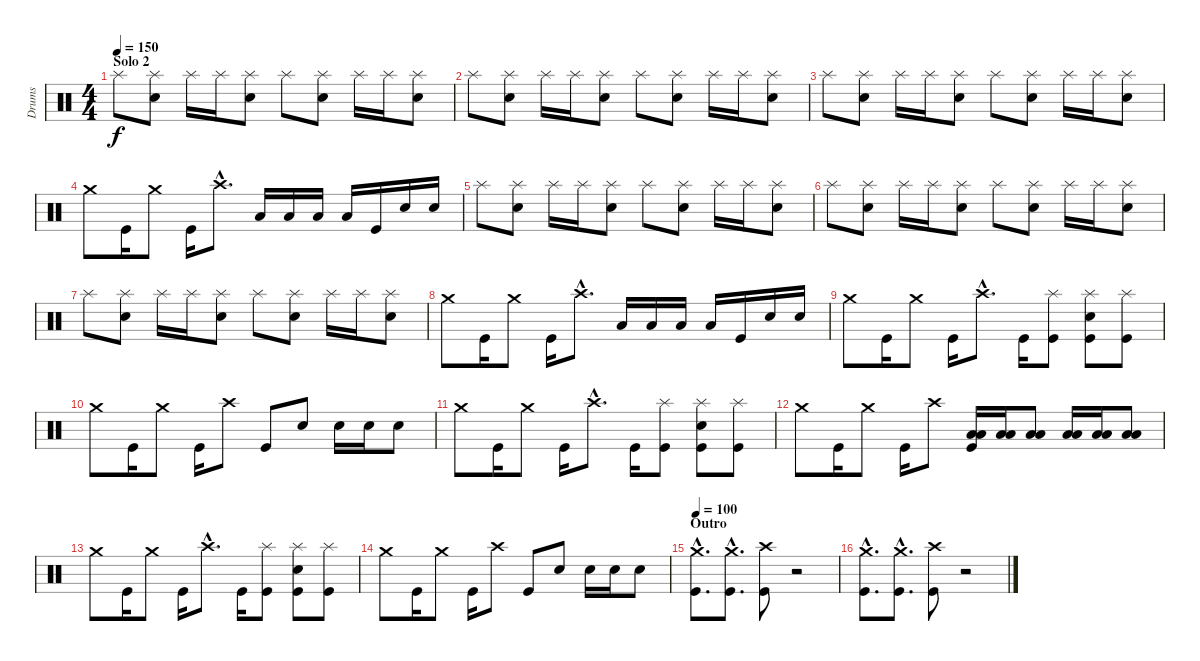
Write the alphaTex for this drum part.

\track ("Drums" "Drums") {instrument percussion}
\staff {score}
\articulation defaults
\ts (4 4)
\section ("" "Solo 2")
\tempo 150
\clef neutral
\ks c "Splash (hit)".8{dy f}
("Splash (hit)" "Snare (hit) 2").8 "Splash (hit)".16 "Splash (hit)".16 ("Splash (hit)" "Snare (hit) 2").8 "Splash (hit)".8 ("Splash (hit)" "Snare (hit) 2").8 "Splash (hit)".16 "Splash (hit)".16 ("Splash (hit)" "Snare (hit) 2").8 |
"Splash (hit)".8 ("Splash (hit)" "Snare (hit) 2").8 "Splash (hit)".16 "Splash (hit)".16 ("Splash (hit)" "Snare (hit) 2").8 "Splash (hit)".8 ("Splash (hit)" "Snare (hit) 2").8 "Splash (hit)".16 "Splash (hit)".16 ("Splash (hit)" "Snare (hit) 2").8 |
"Splash (hit)".8 ("Splash (hit)" "Snare (hit) 2").8 "Splash (hit)".16 "Splash (hit)".16 ("Splash (hit)" "Snare (hit) 2").8 "Splash (hit)".8 ("Splash (hit)" "Snare (hit) 2").8 "Splash (hit)".16 "Splash (hit)".16 ("Splash (hit)" "Snare (hit) 2").8 |
"Crash medium (hit)".8 "Kick (hit)".16 "Crash medium (hit)".8 "Kick (hit)".16 "Crash high (hit)"{hac}.8{d} "Low Tom (hit)".16 "Low Tom (hit)".16 "Low Tom (hit)".16 "Low Tom (hit)".16 "Kick (hit)".16 "Snare (hit) 2".16 "Snare (hit) 2".16 |
"Splash (hit)".8 ("Splash (hit)" "Snare (hit) 2").8 "Splash (hit)".16 "Splash (hit)".16 ("Splash (hit)" "Snare (hit) 2").8 "Splash (hit)".8 ("Splash (hit)" "Snare (hit) 2").8 "Splash (hit)".16 "Splash (hit)".16 ("Splash (hit)" "Snare (hit) 2").8 |
"Splash (hit)".8 ("Splash (hit)" "Snare (hit) 2").8 "Splash (hit)".16 "Splash (hit)".16 ("Splash (hit)" "Snare (hit) 2").8 "Splash (hit)".8 ("Splash (hit)" "Snare (hit) 2").8 "Splash (hit)".16 "Splash (hit)".16 ("Splash (hit)" "Snare (hit) 2").8 |
"Splash (hit)".8 ("Splash (hit)" "Snare (hit) 2").8 "Splash (hit)".16 "Splash (hit)".16 ("Splash (hit)" "Snare (hit) 2").8 "Splash (hit)".8 ("Splash (hit)" "Snare (hit) 2").8 "Splash (hit)".16 "Splash (hit)".16 ("Splash (hit)" "Snare (hit) 2").8 |
"Crash medium (hit)".8 "Kick (hit)".16 "Crash medium (hit)".8 "Kick (hit)".16 "Crash high (hit)"{hac}.8{d} "Low Tom (hit)".16 "Low Tom (hit)".16 "Low Tom (hit)".16 "Low Tom (hit)".16 "Kick (hit)".16 "Snare (hit) 2".16 "Snare (hit) 2".16 |
"Crash medium (hit)".8 "Kick (hit)".16 "Crash medium (hit)".8 "Kick (hit)".16 "Crash high (hit)"{hac}.8{d} "Kick (hit)".16 ("Splash (hit)" "Kick (hit)").8 ("Splash (hit)" "Snare (hit) 2" "Kick (hit)").8 ("Splash (hit)" "Kick (hit)").8 |
"Crash medium (hit)".8 "Kick (hit)".16 "Crash medium (hit)".8 "Kick (hit)".16 "Crash high (hit)".8 "Kick (hit)".8 "Snare (hit) 2".8 "Snare (hit) 2".16 "Snare (hit) 2".16 "Snare (hit) 2".8 |
"Crash medium (hit)".8 "Kick (hit)".16 "Crash medium (hit)".8 "Kick (hit)".16 "Crash high (hit)"{hac}.8{d} "Kick (hit)".16 ("Splash (hit)" "Kick (hit)").8 ("Splash (hit)" "Snare (hit) 2" "Kick (hit)").8 ("Splash (hit)" "Kick (hit)").8 |
"Crash medium (hit)".8 "Kick (hit)".16 "Crash medium (hit)".8 "Kick (hit)".16 "Crash high (hit)".8 ("Low Tom (hit)" "Low Tom (hit)" "Kick (hit)").16 ("Low Tom (hit)" "Low Tom (hit)").16 ("Low Tom (hit)" "Low Tom (hit)").8 ("Low Tom (hit)" "Low Tom (hit)").16 ("Low Tom (hit)" "Low Tom (hit)").16 ("Low Tom (hit)" "Low Tom (hit)").8 |
"Crash medium (hit)".8 "Kick (hit)".16 "Crash medium (hit)".8 "Kick (hit)".16 "Crash high (hit)"{hac}.8{d} "Kick (hit)".16 ("Splash (hit)" "Kick (hit)").8 ("Splash (hit)" "Snare (hit) 2" "Kick (hit)").8 ("Splash (hit)" "Kick (hit)").8 |
"Crash medium (hit)".8 "Kick (hit)".16 "Crash medium (hit)".8 "Kick (hit)".16 "Crash high (hit)".8 "Kick (hit)".8 "Snare (hit) 2".8 "Snare (hit) 2".16 "Snare (hit) 2".16 "Snare (hit) 2".8 |
\section ("" "Outro")
\tempo 100
("Crash medium (hit)"{hac} "Kick (hit)"{hac}).8{d} ("Crash medium (hit)"{hac} "Kick (hit)"{hac}).8{d} ("Crash high (hit)" "Kick (hit)").8 r.2 |
("Crash medium (hit)"{hac} "Kick (hit)"{hac}).8{d} ("Crash medium (hit)"{hac} "Kick (hit)"{hac}).8{d} ("Crash high (hit)" "Kick (hit)").8 r.2
